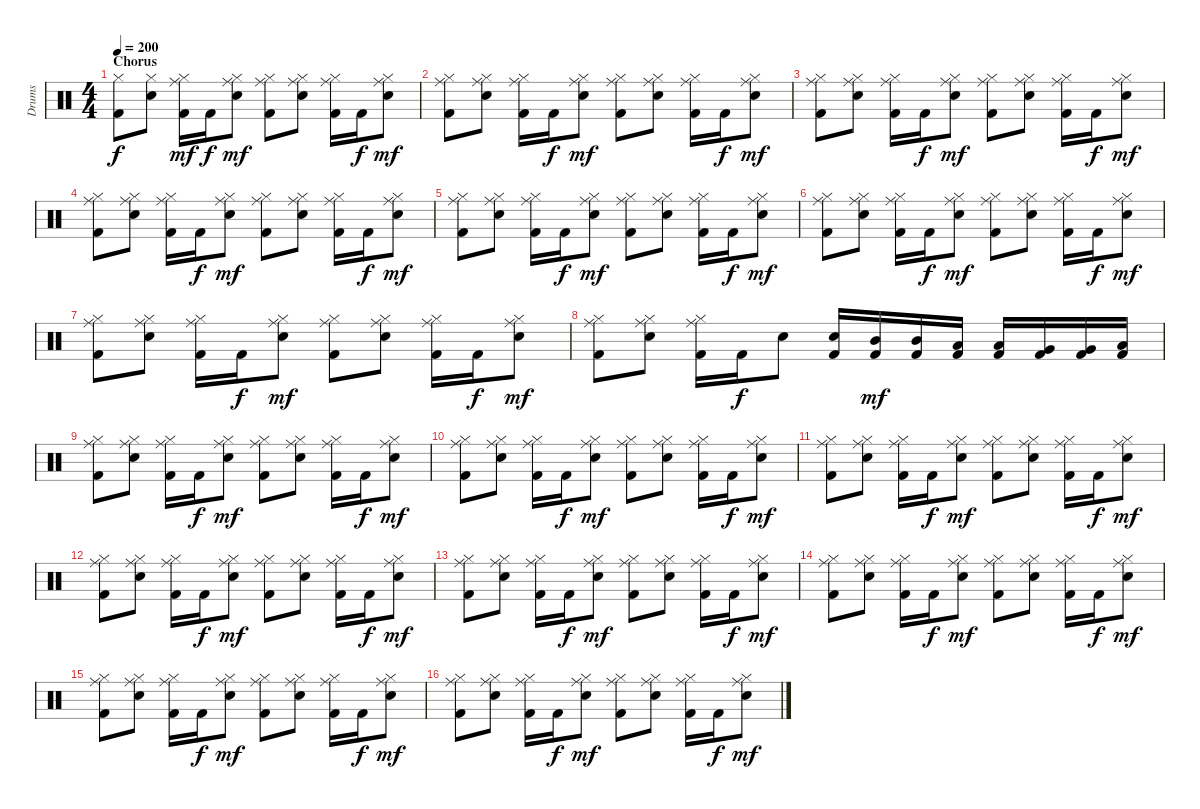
\track ("Drums" "Drums") {instrument percussion}
\staff {score}
\articulation defaults
\ts (4 4)
\section ("" "Chorus")
\tempo 200
\clef neutral
\ks c
("Hi-Hat (closed)" "Kick (hit) 2").8{dy f} ("Hi-Hat (closed)" "Snare (hit) 2").8 ("Hi-Hat (closed)" "Ride (middle)" "Kick (hit) 2").16{dy mf} "Kick (hit) 2".16{dy f} ("Hi-Hat (closed)" "Ride (middle)" "Snare (hit) 2").8{dy mf} ("Hi-Hat (closed)" "Ride (middle)" "Kick (hit) 2").8 ("Hi-Hat (closed)" "Ride (middle)" "Snare (hit) 2").8 ("Hi-Hat (closed)" "Ride (middle)" "Kick (hit) 2").16 "Kick (hit) 2".16{dy f} ("Hi-Hat (closed)" "Ride (middle)" "Snare (hit) 2").8{dy mf} |
("Hi-Hat (closed)" "Ride (middle)" "Kick (hit) 2").8 ("Hi-Hat (closed)" "Ride (middle)" "Snare (hit) 2").8 ("Hi-Hat (closed)" "Ride (middle)" "Kick (hit) 2").16 "Kick (hit) 2".16{dy f} ("Hi-Hat (closed)" "Ride (middle)" "Snare (hit) 2").8{dy mf} ("Hi-Hat (closed)" "Ride (middle)" "Kick (hit) 2").8 ("Hi-Hat (closed)" "Ride (middle)" "Snare (hit) 2").8 ("Hi-Hat (closed)" "Ride (middle)" "Kick (hit) 2").16 "Kick (hit) 2".16{dy f} ("Hi-Hat (closed)" "Ride (middle)" "Snare (hit) 2").8{dy mf} |
("Hi-Hat (closed)" "Ride (middle)" "Kick (hit) 2").8 ("Hi-Hat (closed)" "Ride (middle)" "Snare (hit) 2").8 ("Hi-Hat (closed)" "Ride (middle)" "Kick (hit) 2").16 "Kick (hit) 2".16{dy f} ("Hi-Hat (closed)" "Ride (middle)" "Snare (hit) 2").8{dy mf} ("Hi-Hat (closed)" "Ride (middle)" "Kick (hit) 2").8 ("Hi-Hat (closed)" "Ride (middle)" "Snare (hit) 2").8 ("Hi-Hat (closed)" "Ride (middle)" "Kick (hit) 2").16 "Kick (hit) 2".16{dy f} ("Hi-Hat (closed)" "Ride (middle)" "Snare (hit) 2").8{dy mf} |
("Hi-Hat (closed)" "Ride (middle)" "Kick (hit) 2").8 ("Hi-Hat (closed)" "Ride (middle)" "Snare (hit) 2").8 ("Hi-Hat (closed)" "Ride (middle)" "Kick (hit) 2").16 "Kick (hit) 2".16{dy f} ("Hi-Hat (closed)" "Ride (middle)" "Snare (hit) 2").8{dy mf} ("Hi-Hat (closed)" "Ride (middle)" "Kick (hit) 2").8 ("Hi-Hat (closed)" "Ride (middle)" "Snare (hit) 2").8 ("Hi-Hat (closed)" "Ride (middle)" "Kick (hit) 2").16 "Kick (hit) 2".16{dy f} ("Hi-Hat (closed)" "Ride (middle)" "Snare (hit) 2").8{dy mf} |
("Hi-Hat (closed)" "Ride (middle)" "Kick (hit) 2").8 ("Hi-Hat (closed)" "Ride (middle)" "Snare (hit) 2").8 ("Hi-Hat (closed)" "Ride (middle)" "Kick (hit) 2").16 "Kick (hit) 2".16{dy f} ("Hi-Hat (closed)" "Ride (middle)" "Snare (hit) 2").8{dy mf} ("Hi-Hat (closed)" "Ride (middle)" "Kick (hit) 2").8 ("Hi-Hat (closed)" "Ride (middle)" "Snare (hit) 2").8 ("Hi-Hat (closed)" "Ride (middle)" "Kick (hit) 2").16 "Kick (hit) 2".16{dy f} ("Hi-Hat (closed)" "Ride (middle)" "Snare (hit) 2").8{dy mf} |
("Hi-Hat (closed)" "Ride (middle)" "Kick (hit) 2").8 ("Hi-Hat (closed)" "Ride (middle)" "Snare (hit) 2").8 ("Hi-Hat (closed)" "Ride (middle)" "Kick (hit) 2").16 "Kick (hit) 2".16{dy f} ("Hi-Hat (closed)" "Ride (middle)" "Snare (hit) 2").8{dy mf} ("Hi-Hat (closed)" "Ride (middle)" "Kick (hit) 2").8 ("Hi-Hat (closed)" "Ride (middle)" "Snare (hit) 2").8 ("Hi-Hat (closed)" "Ride (middle)" "Kick (hit) 2").16 "Kick (hit) 2".16{dy f} ("Hi-Hat (closed)" "Ride (middle)" "Snare (hit) 2").8{dy mf} |
("Hi-Hat (closed)" "Ride (middle)" "Kick (hit) 2").8 ("Hi-Hat (closed)" "Ride (middle)" "Snare (hit) 2").8 ("Hi-Hat (closed)" "Ride (middle)" "Kick (hit) 2").16 "Kick (hit) 2".16{dy f} ("Hi-Hat (closed)" "Ride (middle)" "Snare (hit) 2").8{dy mf} ("Hi-Hat (closed)" "Ride (middle)" "Kick (hit) 2").8 ("Hi-Hat (closed)" "Ride (middle)" "Snare (hit) 2").8 ("Hi-Hat (closed)" "Ride (middle)" "Kick (hit) 2").16 "Kick (hit) 2".16{dy f} ("Hi-Hat (closed)" "Ride (middle)" "Snare (hit) 2").8{dy mf} |
("Hi-Hat (closed)" "Ride (middle)" "Kick (hit) 2").8 ("Hi-Hat (closed)" "Ride (middle)" "Snare (hit) 2").8 ("Hi-Hat (closed)" "Ride (middle)" "Kick (hit) 2").16 "Kick (hit) 2".16{dy f} "Snare (hit) 2".8 ("Snare (hit) 2" "Kick (hit) 2").16 ("Mid Tom (hit)" "Kick (hit) 2").16{dy mf} ("Mid Tom (hit)" "Kick (hit) 2").16 ("Low Tom (hit)" "Kick (hit) 2").16 ("Low Tom (hit)" "Kick (hit) 2").16 ("Very Low Tom (hit)" "Kick (hit) 2").16 ("Very Low Tom (hit)" "Kick (hit) 2").16 ("Low Floor Tom (hit)" "Kick (hit) 2").16 |
("Hi-Hat (closed)" "Ride (middle)" "Kick (hit) 2").8 ("Hi-Hat (closed)" "Ride (middle)" "Snare (hit) 2").8 ("Hi-Hat (closed)" "Ride (middle)" "Kick (hit) 2").16 "Kick (hit) 2".16{dy f} ("Hi-Hat (closed)" "Ride (middle)" "Snare (hit) 2").8{dy mf} ("Hi-Hat (closed)" "Ride (middle)" "Kick (hit) 2").8 ("Hi-Hat (closed)" "Ride (middle)" "Snare (hit) 2").8 ("Hi-Hat (closed)" "Ride (middle)" "Kick (hit) 2").16 "Kick (hit) 2".16{dy f} ("Hi-Hat (closed)" "Ride (middle)" "Snare (hit) 2").8{dy mf} |
("Hi-Hat (closed)" "Ride (middle)" "Kick (hit) 2").8 ("Hi-Hat (closed)" "Ride (middle)" "Snare (hit) 2").8 ("Hi-Hat (closed)" "Ride (middle)" "Kick (hit) 2").16 "Kick (hit) 2".16{dy f} ("Hi-Hat (closed)" "Ride (middle)" "Snare (hit) 2").8{dy mf} ("Hi-Hat (closed)" "Ride (middle)" "Kick (hit) 2").8 ("Hi-Hat (closed)" "Ride (middle)" "Snare (hit) 2").8 ("Hi-Hat (closed)" "Ride (middle)" "Kick (hit) 2").16 "Kick (hit) 2".16{dy f} ("Hi-Hat (closed)" "Ride (middle)" "Snare (hit) 2").8{dy mf} |
("Hi-Hat (closed)" "Ride (middle)" "Kick (hit) 2").8 ("Hi-Hat (closed)" "Ride (middle)" "Snare (hit) 2").8 ("Hi-Hat (closed)" "Ride (middle)" "Kick (hit) 2").16 "Kick (hit) 2".16{dy f} ("Hi-Hat (closed)" "Ride (middle)" "Snare (hit) 2").8{dy mf} ("Hi-Hat (closed)" "Ride (middle)" "Kick (hit) 2").8 ("Hi-Hat (closed)" "Ride (middle)" "Snare (hit) 2").8 ("Hi-Hat (closed)" "Ride (middle)" "Kick (hit) 2").16 "Kick (hit) 2".16{dy f} ("Hi-Hat (closed)" "Ride (middle)" "Snare (hit) 2").8{dy mf} |
("Hi-Hat (closed)" "Ride (middle)" "Kick (hit) 2").8 ("Hi-Hat (closed)" "Ride (middle)" "Snare (hit) 2").8 ("Hi-Hat (closed)" "Ride (middle)" "Kick (hit) 2").16 "Kick (hit) 2".16{dy f} ("Hi-Hat (closed)" "Ride (middle)" "Snare (hit) 2").8{dy mf} ("Hi-Hat (closed)" "Ride (middle)" "Kick (hit) 2").8 ("Hi-Hat (closed)" "Ride (middle)" "Snare (hit) 2").8 ("Hi-Hat (closed)" "Ride (middle)" "Kick (hit) 2").16 "Kick (hit) 2".16{dy f} ("Hi-Hat (closed)" "Ride (middle)" "Snare (hit) 2").8{dy mf} |
("Hi-Hat (closed)" "Ride (middle)" "Kick (hit) 2").8 ("Hi-Hat (closed)" "Ride (middle)" "Snare (hit) 2").8 ("Hi-Hat (closed)" "Ride (middle)" "Kick (hit) 2").16 "Kick (hit) 2".16{dy f} ("Hi-Hat (closed)" "Ride (middle)" "Snare (hit) 2").8{dy mf} ("Hi-Hat (closed)" "Ride (middle)" "Kick (hit) 2").8 ("Hi-Hat (closed)" "Ride (middle)" "Snare (hit) 2").8 ("Hi-Hat (closed)" "Ride (middle)" "Kick (hit) 2").16 "Kick (hit) 2".16{dy f} ("Hi-Hat (closed)" "Ride (middle)" "Snare (hit) 2").8{dy mf} |
("Hi-Hat (closed)" "Ride (middle)" "Kick (hit) 2").8 ("Hi-Hat (closed)" "Ride (middle)" "Snare (hit) 2").8 ("Hi-Hat (closed)" "Ride (middle)" "Kick (hit) 2").16 "Kick (hit) 2".16{dy f} ("Hi-Hat (closed)" "Ride (middle)" "Snare (hit) 2").8{dy mf} ("Hi-Hat (closed)" "Ride (middle)" "Kick (hit) 2").8 ("Hi-Hat (closed)" "Ride (middle)" "Snare (hit) 2").8 ("Hi-Hat (closed)" "Ride (middle)" "Kick (hit) 2").16 "Kick (hit) 2".16{dy f} ("Hi-Hat (closed)" "Ride (middle)" "Snare (hit) 2").8{dy mf} |
("Hi-Hat (closed)" "Ride (middle)" "Kick (hit) 2").8 ("Hi-Hat (closed)" "Ride (middle)" "Snare (hit) 2").8 ("Hi-Hat (closed)" "Ride (middle)" "Kick (hit) 2").16 "Kick (hit) 2".16{dy f} ("Hi-Hat (closed)" "Ride (middle)" "Snare (hit) 2").8{dy mf} ("Hi-Hat (closed)" "Ride (middle)" "Kick (hit) 2").8 ("Hi-Hat (closed)" "Ride (middle)" "Snare (hit) 2").8 ("Hi-Hat (closed)" "Ride (middle)" "Kick (hit) 2").16 "Kick (hit) 2".16{dy f} ("Hi-Hat (closed)" "Ride (middle)" "Snare (hit) 2").8{dy mf} |
("Hi-Hat (closed)" "Ride (middle)" "Kick (hit) 2").8 ("Hi-Hat (closed)" "Ride (middle)" "Snare (hit) 2").8 ("Hi-Hat (closed)" "Ride (middle)" "Kick (hit) 2").16 "Kick (hit) 2".16{dy f} ("Hi-Hat (closed)" "Ride (middle)" "Snare (hit) 2").8{dy mf} ("Hi-Hat (closed)" "Ride (middle)" "Kick (hit) 2").8 ("Hi-Hat (closed)" "Ride (middle)" "Snare (hit) 2").8 ("Hi-Hat (closed)" "Ride (middle)" "Kick (hit) 2").16 "Kick (hit) 2".16{dy f} ("Hi-Hat (closed)" "Ride (middle)" "Snare (hit) 2").8{dy mf}
